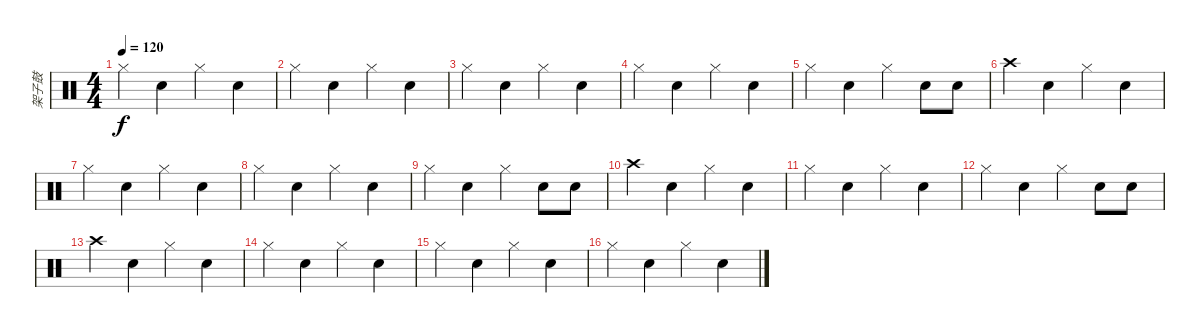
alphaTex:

\track ("架子鼓" "架子鼓") {instrument percussion}
\staff {score}
\articulation defaults
\ts (4 4)
\tempo 120
\clef neutral
\ks c "Hi-Hat (closed)".4{dy f} "Snare (hit) 2".4 "Hi-Hat (closed)".4 "Snare (hit) 2".4
|
"Hi-Hat (closed)".4 "Snare (hit) 2".4 "Hi-Hat (closed)".4 "Snare (hit) 2".4 |
"Hi-Hat (closed)".4 "Snare (hit) 2".4 "Hi-Hat (closed)".4 "Snare (hit) 2".4 |
"Hi-Hat (closed)".4 "Snare (hit) 2".4 "Hi-Hat (closed)".4 "Snare (hit) 2".4 |
"Hi-Hat (closed)".4 "Snare (hit) 2".4 "Hi-Hat (closed)".4 "Snare (hit) 2".8 "Snare (hit) 2".8 |
"Crash high (hit)".4 "Snare (hit) 2".4 "Hi-Hat (closed)".4 "Snare (hit) 2".4 |
"Hi-Hat (closed)".4 "Snare (hit) 2".4 "Hi-Hat (closed)".4 "Snare (hit) 2".4 |
"Hi-Hat (closed)".4 "Snare (hit) 2".4 "Hi-Hat (closed)".4 "Snare (hit) 2".4 |
"Hi-Hat (closed)".4 "Snare (hit) 2".4 "Hi-Hat (closed)".4 "Snare (hit) 2".8 "Snare (hit) 2".8 |
"Crash high (hit)".4 "Snare (hit) 2".4 "Hi-Hat (closed)".4 "Snare (hit) 2".4 |
"Hi-Hat (closed)".4 "Snare (hit) 2".4 "Hi-Hat (closed)".4 "Snare (hit) 2".4 |
"Hi-Hat (closed)".4 "Snare (hit) 2".4 "Hi-Hat (closed)".4 "Snare (hit) 2".8 "Snare (hit) 2".8 |
"Crash high (hit)".4 "Snare (hit) 2".4 "Hi-Hat (closed)".4 "Snare (hit) 2".4 |
"Hi-Hat (closed)".4 "Snare (hit) 2".4 "Hi-Hat (closed)".4 "Snare (hit) 2".4 |
"Hi-Hat (closed)".4 "Snare (hit) 2".4 "Hi-Hat (closed)".4 "Snare (hit) 2".4 |
"Hi-Hat (closed)".4 "Snare (hit) 2".4 "Hi-Hat (closed)".4 "Snare (hit) 2".4
